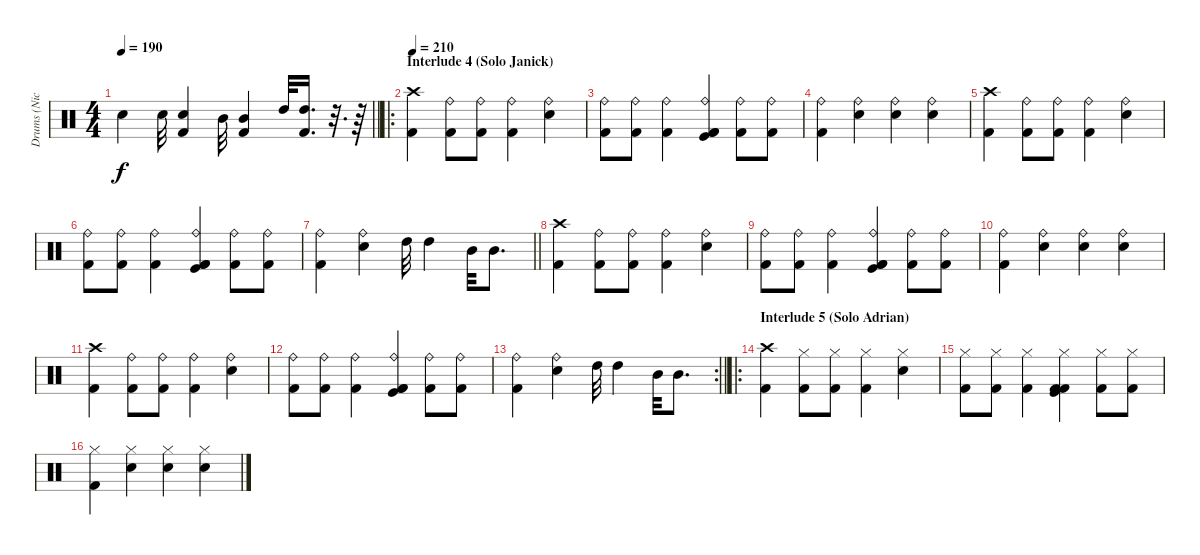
\track ("Drums (Nicko McBrain)" "Drums (Nic") {instrument percussion}
\staff {score}
\articulation defaults
\ts (4 4)
\tempo 190
\clef neutral
\barLineRight lightlight
\ks c "Electric Snare (hit)".4{dy f} "Electric Snare (hit)".32
("Electric Snare (hit)" "Kick (hit) 2").4 "Mid Tom (hit)".32 ("Mid Tom (hit)" "Kick (hit) 2").4 "High Tom (hit)".32 ("High Tom (hit)" "Kick (hit) 2").16{d} r.32{d} r.64 |
\ro
\section ("" "Interlude 4 (Solo Janick)")
\tempo 210
("Crash high (hit)" "Kick (hit) 2").4 ("Ride (bell)" "Kick (hit) 2").8 ("Ride (bell)" "Kick (hit) 2").8 ("Ride (bell)" "Kick (hit) 2").4 ("Ride (bell)" "Electric Snare (hit)").4 |
("Ride (bell)" "Kick (hit) 2").8 ("Ride (bell)" "Kick (hit) 2").8 ("Ride (bell)" "Kick (hit) 2").4 ("Ride (bell)" "Kick (hit) 2" "Kick (hit)" "Kick (hit) 2").4 ("Ride (bell)" "Kick (hit) 2").8 ("Ride (bell)" "Kick (hit) 2").8 |
("Ride (bell)" "Kick (hit) 2").4 ("Ride (bell)" "Electric Snare (hit)").4 ("Ride (bell)" "Electric Snare (hit)").4 ("Ride (bell)" "Electric Snare (hit)").4 |
("Crash high (hit)" "Kick (hit) 2").4 ("Ride (bell)" "Kick (hit) 2").8 ("Ride (bell)" "Kick (hit) 2").8 ("Ride (bell)" "Kick (hit) 2").4 ("Ride (bell)" "Electric Snare (hit)").4 |
("Ride (bell)" "Kick (hit) 2").8 ("Ride (bell)" "Kick (hit) 2").8 ("Ride (bell)" "Kick (hit) 2").4 ("Ride (bell)" "Kick (hit) 2" "Kick (hit)" "Kick (hit) 2").4 ("Ride (bell)" "Kick (hit) 2").8 ("Ride (bell)" "Kick (hit) 2").8 |
\barLineRight lightlight
("Ride (bell)" "Kick (hit) 2").4 ("Ride (bell)" "Electric Snare (hit)").4 "High Tom (hit)".32 "High Tom (hit)".4 "Mid Tom (hit)".32 "Mid Tom (hit)".8{d} |
("Crash high (hit)" "Kick (hit) 2").4 ("Ride (bell)" "Kick (hit) 2").8 ("Ride (bell)" "Kick (hit) 2").8 ("Ride (bell)" "Kick (hit) 2").4 ("Ride (bell)" "Electric Snare (hit)").4 |
("Ride (bell)" "Kick (hit) 2").8 ("Ride (bell)" "Kick (hit) 2").8 ("Ride (bell)" "Kick (hit) 2").4 ("Ride (bell)" "Kick (hit) 2" "Kick (hit)" "Kick (hit) 2").4 ("Ride (bell)" "Kick (hit) 2").8 ("Ride (bell)" "Kick (hit) 2").8 |
("Ride (bell)" "Kick (hit) 2").4 ("Ride (bell)" "Electric Snare (hit)").4 ("Ride (bell)" "Electric Snare (hit)").4 ("Ride (bell)" "Electric Snare (hit)").4 |
("Crash high (hit)" "Kick (hit) 2").4 ("Ride (bell)" "Kick (hit) 2").8 ("Ride (bell)" "Kick (hit) 2").8 ("Ride (bell)" "Kick (hit) 2").4 ("Ride (bell)" "Electric Snare (hit)").4 |
("Ride (bell)" "Kick (hit) 2").8 ("Ride (bell)" "Kick (hit) 2").8 ("Ride (bell)" "Kick (hit) 2").4 ("Ride (bell)" "Kick (hit) 2" "Kick (hit)" "Kick (hit) 2").4 ("Ride (bell)" "Kick (hit) 2").8 ("Ride (bell)" "Kick (hit) 2").8 |
\rc 2
\barLineRight lightlight
("Ride (bell)" "Kick (hit) 2").4 ("Ride (bell)" "Electric Snare (hit)").4 "High Tom (hit)".32 "High Tom (hit)".4 "Mid Tom (hit)".32 "Mid Tom (hit)".8{d} |
\ro
\section ("" "Interlude 5 (Solo Adrian)")
("Crash high (hit)" "Kick (hit) 2").4 ("Hi-Hat (closed)" "Kick (hit) 2").8 ("Hi-Hat (closed)" "Kick (hit) 2").8 ("Hi-Hat (closed)" "Kick (hit) 2").4 ("Hi-Hat (closed)" "Electric Snare (hit)").4 |
("Hi-Hat (closed)" "Kick (hit) 2").8 ("Hi-Hat (closed)" "Kick (hit) 2").8 ("Hi-Hat (closed)" "Kick (hit) 2").4 ("Hi-Hat (closed)" "Kick (hit) 2" "Kick (hit)" "Kick (hit) 2").4 ("Hi-Hat (closed)" "Kick (hit) 2").8 ("Hi-Hat (closed)" "Kick (hit) 2").8 |
("Hi-Hat (closed)" "Kick (hit) 2").4 ("Hi-Hat (closed)" "Electric Snare (hit)").4 ("Hi-Hat (closed)" "Electric Snare (hit)").4 ("Hi-Hat (closed)" "Electric Snare (hit)").4
